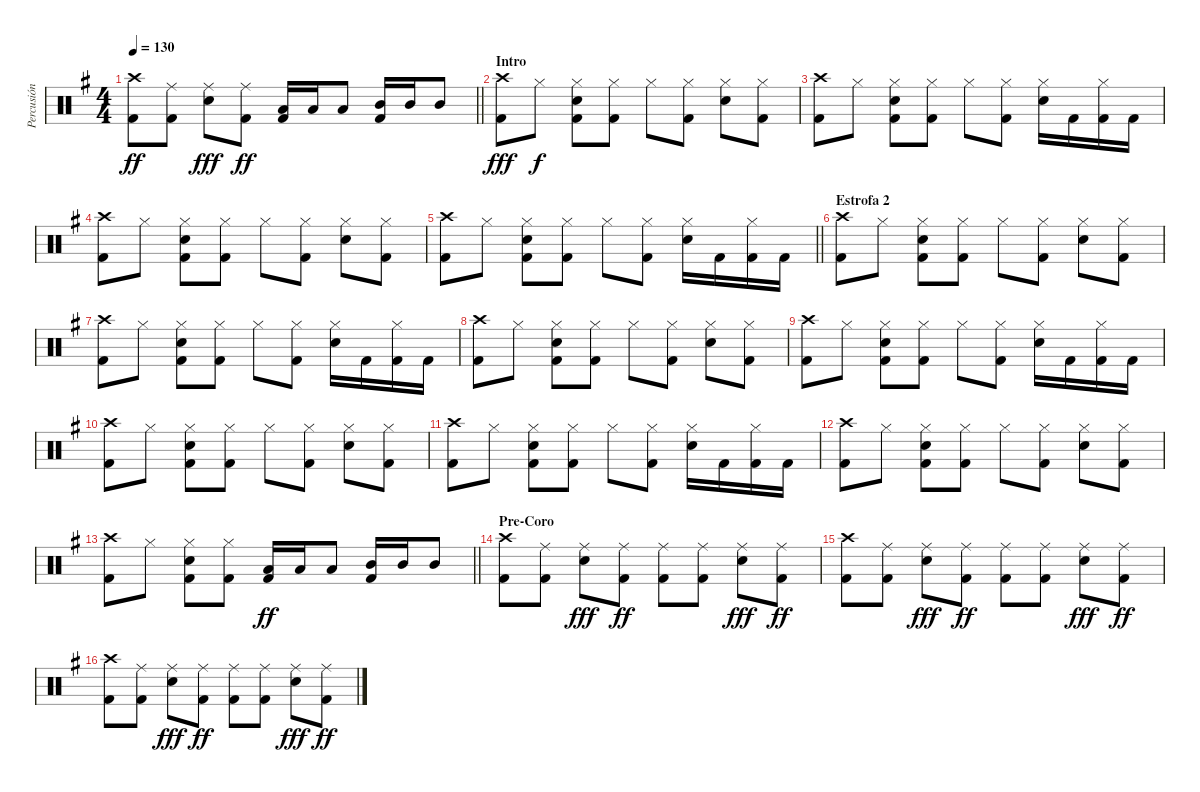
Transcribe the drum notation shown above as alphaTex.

\track ("Percusión" "Percusión") {instrument percussion}
\staff {score}
\articulation defaults
\ts (4 4)
\tempo 130
\clef neutral
\barLineRight lightlight
\ks g
("Crash high (hit)" "Kick (hit) 2").8{dy ff} ("Ride (middle)" "Kick (hit) 2").8 ("Ride (middle)" "Snare (hit) 2").8{dy fff} ("Ride (middle)" "Kick (hit) 2").8{dy ff} ("Low Tom (hit)" "Kick (hit) 2").16 "Low Tom (hit)".16 "Low Tom (hit)".8 ("Mid Tom (hit)" "Kick (hit) 2").16 "Mid Tom (hit)".16 "Mid Tom (hit)".8 |
\section ("" "Intro")
("Crash high (hit)" "Kick (hit) 2").8{dy fff} "Hi-Hat (closed)".8{dy f} ("Hi-Hat (closed)" "Snare (hit) 2" "Kick (hit) 2").8 ("Hi-Hat (closed)" "Kick (hit) 2").8 "Hi-Hat (closed)".8 ("Hi-Hat (closed)" "Kick (hit) 2").8 ("Hi-Hat (closed)" "Snare (hit) 2").8 ("Hi-Hat (closed)" "Kick (hit) 2").8 |
("Crash high (hit)" "Kick (hit) 2").8 "Hi-Hat (closed)".8 ("Hi-Hat (closed)" "Snare (hit) 2" "Kick (hit) 2").8 ("Hi-Hat (closed)" "Kick (hit) 2").8 "Hi-Hat (closed)".8 ("Hi-Hat (closed)" "Kick (hit) 2").8 ("Hi-Hat (closed)" "Snare (hit) 2").16 "Kick (hit) 2".16 ("Hi-Hat (closed)" "Kick (hit) 2").16 "Kick (hit) 2".16 |
("Crash high (hit)" "Kick (hit) 2").8 "Hi-Hat (closed)".8 ("Hi-Hat (closed)" "Snare (hit) 2" "Kick (hit) 2").8 ("Hi-Hat (closed)" "Kick (hit) 2").8 "Hi-Hat (closed)".8 ("Hi-Hat (closed)" "Kick (hit) 2").8 ("Hi-Hat (closed)" "Snare (hit) 2").8 ("Hi-Hat (closed)" "Kick (hit) 2").8 |
\barLineRight lightlight
("Crash high (hit)" "Kick (hit) 2").8 "Hi-Hat (closed)".8 ("Hi-Hat (closed)" "Snare (hit) 2" "Kick (hit) 2").8 ("Hi-Hat (closed)" "Kick (hit) 2").8 "Hi-Hat (closed)".8 ("Hi-Hat (closed)" "Kick (hit) 2").8 ("Hi-Hat (closed)" "Snare (hit) 2").16 "Kick (hit) 2".16 ("Hi-Hat (closed)" "Kick (hit) 2").16 "Kick (hit) 2".16 |
\section ("" "Estrofa 2")
("Crash high (hit)" "Kick (hit) 2").8 "Hi-Hat (closed)".8 ("Hi-Hat (closed)" "Snare (hit) 2" "Kick (hit) 2").8 ("Hi-Hat (closed)" "Kick (hit) 2").8 "Hi-Hat (closed)".8 ("Hi-Hat (closed)" "Kick (hit) 2").8 ("Hi-Hat (closed)" "Snare (hit) 2").8 ("Hi-Hat (closed)" "Kick (hit) 2").8 |
("Crash high (hit)" "Kick (hit) 2").8 "Hi-Hat (closed)".8 ("Hi-Hat (closed)" "Snare (hit) 2" "Kick (hit) 2").8 ("Hi-Hat (closed)" "Kick (hit) 2").8 "Hi-Hat (closed)".8 ("Hi-Hat (closed)" "Kick (hit) 2").8 ("Hi-Hat (closed)" "Snare (hit) 2").16 "Kick (hit) 2".16 ("Hi-Hat (closed)" "Kick (hit) 2").16 "Kick (hit) 2".16 |
("Crash high (hit)" "Kick (hit) 2").8 "Hi-Hat (closed)".8 ("Hi-Hat (closed)" "Snare (hit) 2" "Kick (hit) 2").8 ("Hi-Hat (closed)" "Kick (hit) 2").8 "Hi-Hat (closed)".8 ("Hi-Hat (closed)" "Kick (hit) 2").8 ("Hi-Hat (closed)" "Snare (hit) 2").8 ("Hi-Hat (closed)" "Kick (hit) 2").8 |
("Crash high (hit)" "Kick (hit) 2").8 "Hi-Hat (closed)".8 ("Hi-Hat (closed)" "Snare (hit) 2" "Kick (hit) 2").8 ("Hi-Hat (closed)" "Kick (hit) 2").8 "Hi-Hat (closed)".8 ("Hi-Hat (closed)" "Kick (hit) 2").8 ("Hi-Hat (closed)" "Snare (hit) 2").16 "Kick (hit) 2".16 ("Hi-Hat (closed)" "Kick (hit) 2").16 "Kick (hit) 2".16 |
("Crash high (hit)" "Kick (hit) 2").8 "Hi-Hat (closed)".8 ("Hi-Hat (closed)" "Snare (hit) 2" "Kick (hit) 2").8 ("Hi-Hat (closed)" "Kick (hit) 2").8 "Hi-Hat (closed)".8 ("Hi-Hat (closed)" "Kick (hit) 2").8 ("Hi-Hat (closed)" "Snare (hit) 2").8 ("Hi-Hat (closed)" "Kick (hit) 2").8 |
("Crash high (hit)" "Kick (hit) 2").8 "Hi-Hat (closed)".8 ("Hi-Hat (closed)" "Snare (hit) 2" "Kick (hit) 2").8 ("Hi-Hat (closed)" "Kick (hit) 2").8 "Hi-Hat (closed)".8 ("Hi-Hat (closed)" "Kick (hit) 2").8 ("Hi-Hat (closed)" "Snare (hit) 2").16 "Kick (hit) 2".16 ("Hi-Hat (closed)" "Kick (hit) 2").16 "Kick (hit) 2".16 |
("Crash high (hit)" "Kick (hit) 2").8 "Hi-Hat (closed)".8 ("Hi-Hat (closed)" "Snare (hit) 2" "Kick (hit) 2").8 ("Hi-Hat (closed)" "Kick (hit) 2").8 "Hi-Hat (closed)".8 ("Hi-Hat (closed)" "Kick (hit) 2").8 ("Hi-Hat (closed)" "Snare (hit) 2").8 ("Hi-Hat (closed)" "Kick (hit) 2").8 |
\barLineRight lightlight
("Crash high (hit)" "Kick (hit) 2").8 "Hi-Hat (closed)".8 ("Hi-Hat (closed)" "Snare (hit) 2" "Kick (hit) 2").8 ("Hi-Hat (closed)" "Kick (hit) 2").8 ("Low Tom (hit)" "Kick (hit) 2").16{dy ff} "Low Tom (hit)".16 "Low Tom (hit)".8 ("Mid Tom (hit)" "Kick (hit) 2").16 "Mid Tom (hit)".16 "Mid Tom (hit)".8 |
\section ("" "Pre-Coro")
("Crash high (hit)" "Kick (hit) 2").8 ("Ride (middle)" "Kick (hit) 2").8 ("Ride (middle)" "Snare (hit) 2").8{dy fff} ("Ride (middle)" "Kick (hit) 2").8{dy ff} ("Ride (middle)" "Kick (hit) 2").8 ("Ride (middle)" "Kick (hit) 2").8 ("Ride (middle)" "Snare (hit) 2").8{dy fff} ("Ride (middle)" "Kick (hit) 2").8{dy ff} |
("Crash high (hit)" "Kick (hit) 2").8 ("Ride (middle)" "Kick (hit) 2").8 ("Ride (middle)" "Snare (hit) 2").8{dy fff} ("Ride (middle)" "Kick (hit) 2").8{dy ff} ("Ride (middle)" "Kick (hit) 2").8 ("Ride (middle)" "Kick (hit) 2").8 ("Ride (middle)" "Snare (hit) 2").8{dy fff} ("Ride (middle)" "Kick (hit) 2").8{dy ff} |
("Crash high (hit)" "Kick (hit) 2").8 ("Ride (middle)" "Kick (hit) 2").8 ("Ride (middle)" "Snare (hit) 2").8{dy fff} ("Ride (middle)" "Kick (hit) 2").8{dy ff} ("Ride (middle)" "Kick (hit) 2").8 ("Ride (middle)" "Kick (hit) 2").8 ("Ride (middle)" "Snare (hit) 2").8{dy fff} ("Ride (middle)" "Kick (hit) 2").8{dy ff}
